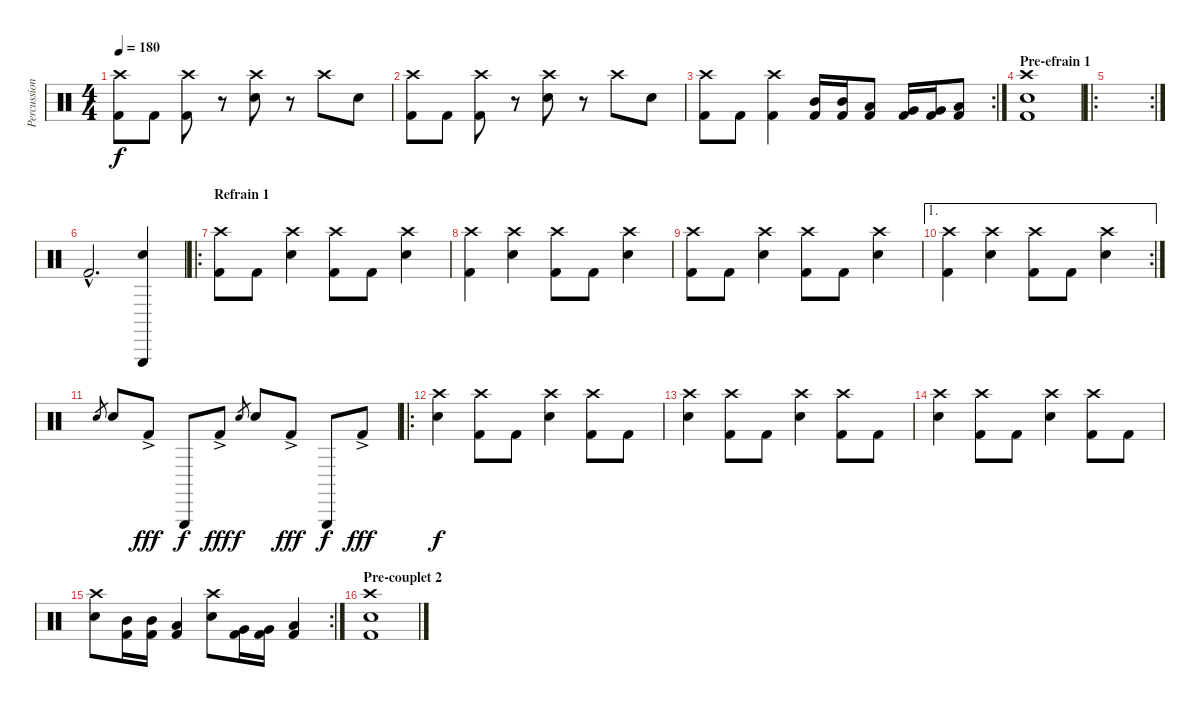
\track ("Percussions" "Percussion") {instrument percussion}
\staff {score}
\articulation defaults
\ts (4 4)
\tempo 180
\clef neutral
\ks c
("Crash high (hit)" "Kick (hit) 2").8{dy f} "Kick (hit) 2".8 ("Crash high (hit)" "Kick (hit) 2").8 r.8 ("Crash high (hit)" "Snare (hit) 2").8 r.8 "Crash high (hit)".8 "Snare (hit) 2".8 |
("Crash high (hit)" "Kick (hit) 2").8 "Kick (hit) 2".8 ("Crash high (hit)" "Kick (hit) 2").8 r.8 ("Crash high (hit)" "Snare (hit) 2").8 r.8 "Crash high (hit)".8 "Snare (hit) 2".8 |
\rc 2
("Crash high (hit)" "Kick (hit) 2").8 "Kick (hit) 2".8 ("Crash high (hit)" "Kick (hit) 2").4 ("Mid Tom (hit)" "Kick (hit) 2").16 ("Mid Tom (hit)" "Kick (hit) 2").16 ("Low Tom (hit)" "Kick (hit) 2").8 ("Very Low Tom (hit)" "Kick (hit) 2").16 ("Very Low Tom (hit)" "Kick (hit) 2").16 ("Low Floor Tom (hit)" "Kick (hit) 2").8 |
\section ("" "Pre-efrain 1")
("Crash high (hit)" "Snare (hit) 2" "Kick (hit) 2").1 |
\ro
\rc 2
|
"Kick (hit) 2"{tr (36 16) hac}.2{d} ("Triangle (hit)" "Snare (hit) 2").4 |
\ro
\section ("" "Refrain 1")
("Crash high (hit)" "Kick (hit) 2").8 "Kick (hit) 2".8 ("Crash high (hit)" "Snare (hit) 2").4 ("Crash high (hit)" "Kick (hit) 2").8 "Kick (hit) 2".8 ("Crash high (hit)" "Snare (hit) 2").4 |
("Crash high (hit)" "Kick (hit) 2").4 ("Crash high (hit)" "Snare (hit) 2").4 ("Crash high (hit)" "Kick (hit) 2").8 "Kick (hit) 2".8 ("Crash high (hit)" "Snare (hit) 2").4 |
("Crash high (hit)" "Kick (hit) 2").8 "Kick (hit) 2".8 ("Crash high (hit)" "Snare (hit) 2").4 ("Crash high (hit)" "Kick (hit) 2").8 "Kick (hit) 2".8 ("Crash high (hit)" "Snare (hit) 2").4 |
\ae 1
\rc 2
("Crash high (hit)" "Kick (hit) 2").4 ("Crash high (hit)" "Snare (hit) 2").4 ("Crash high (hit)" "Kick (hit) 2").8 "Kick (hit) 2".8 ("Crash high (hit)" "Snare (hit) 2").4 |
"Snare (hit) 2".8{gr} "Snare (hit) 2".8 "Kick (hit) 2"{ac}.8{dy fff} "Triangle (hit)".8{dy f} "Kick (hit) 2"{ac}.8{dy fff} "Snare (hit) 2".8{gr dy f} "Snare (hit) 2".8 "Kick (hit) 2"{ac}.8{dy fff} "Triangle (hit)".8{dy f} "Kick (hit) 2"{ac}.8{dy fff} |
\ro
("Crash high (hit)" "Snare (hit) 2").4{dy f} ("Crash high (hit)" "Kick (hit) 2").8 "Kick (hit) 2".8 ("Crash high (hit)" "Snare (hit) 2").4 ("Crash high (hit)" "Kick (hit) 2").8 "Kick (hit) 2".8 |
("Crash high (hit)" "Snare (hit) 2").4 ("Crash high (hit)" "Kick (hit) 2").8 "Kick (hit) 2".8 ("Crash high (hit)" "Snare (hit) 2").4 ("Crash high (hit)" "Kick (hit) 2").8 "Kick (hit) 2".8 |
("Crash high (hit)" "Snare (hit) 2").4 ("Crash high (hit)" "Kick (hit) 2").8 "Kick (hit) 2".8 ("Crash high (hit)" "Snare (hit) 2").4 ("Crash high (hit)" "Kick (hit) 2").8 "Kick (hit) 2".8 |
\rc 2
("Crash high (hit)" "Snare (hit) 2").8 ("Mid Tom (hit)" "Kick (hit) 2").16 ("Mid Tom (hit)" "Kick (hit) 2").16 ("Low Tom (hit)" "Kick (hit) 2").4 ("Crash high (hit)" "Snare (hit) 2").8 ("Very Low Tom (hit)" "Kick (hit) 2").16 ("Very Low Tom (hit)" "Kick (hit) 2").16 ("Low Floor Tom (hit)" "Kick (hit) 2").4 |
\section ("" "Pre-couplet 2")
("Crash high (hit)" "Snare (hit) 2" "Kick (hit) 2").1
